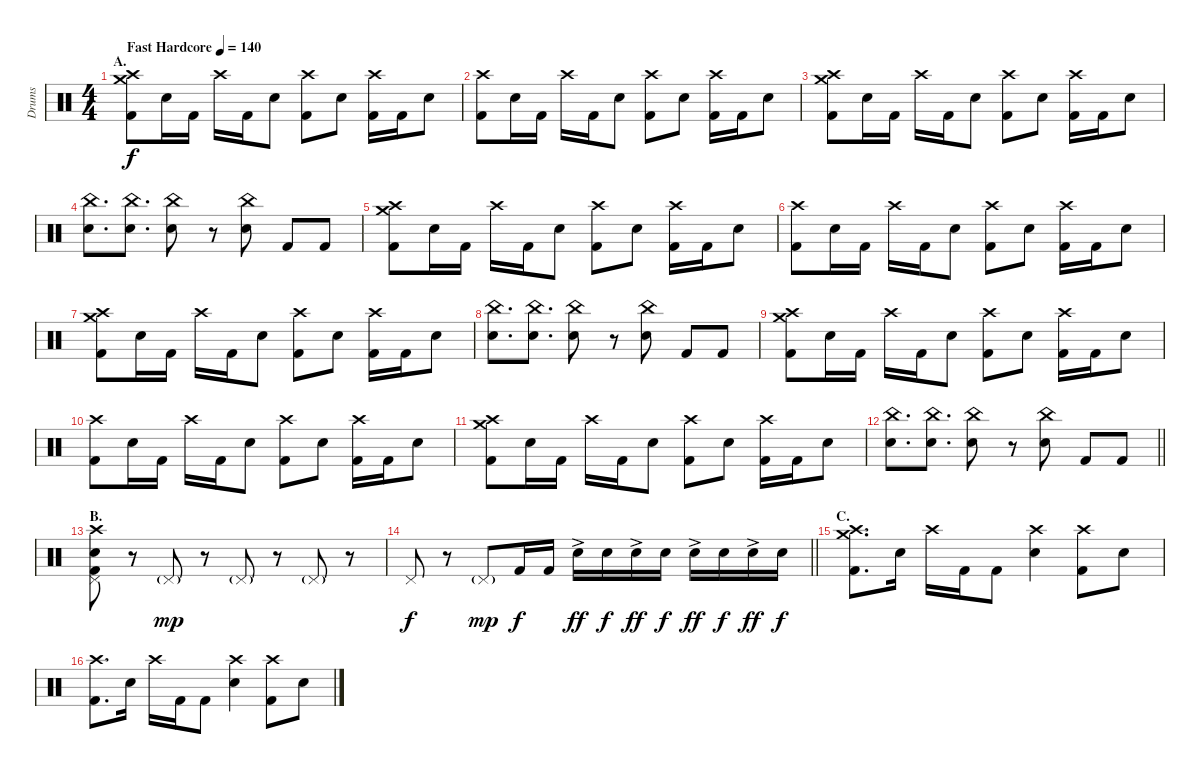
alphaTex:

\track ("Drums" "Drums") {instrument percussion}
\staff {score}
\articulation defaults
\ts (4 4)
\section ("" "A.")
\tempo (140 "Fast Hardcore")
\clef neutral
\ks c
("Crash medium (hit)" "Crash high (hit)" "Kick (hit) 2").8{dy f} "Electric Snare (hit)".16 "Kick (hit) 2".16 "Crash high (hit)".16 "Kick (hit) 2".16 "Electric Snare (hit)".8 ("Crash high (hit)" "Kick (hit) 2").8 "Electric Snare (hit)".8 ("Crash high (hit)" "Kick (hit) 2").16 "Kick (hit) 2".16 "Electric Snare (hit)".8 |
("Crash high (hit)" "Kick (hit) 2").8 "Electric Snare (hit)".16 "Kick (hit) 2".16 "Crash high (hit)".16 "Kick (hit) 2".16 "Electric Snare (hit)".8 ("Crash high (hit)" "Kick (hit) 2").8 "Electric Snare (hit)".8 ("Crash high (hit)" "Kick (hit) 2").16 "Kick (hit) 2".16 "Electric Snare (hit)".8 |
("Crash medium (hit)" "Crash high (hit)" "Kick (hit) 2").8 "Electric Snare (hit)".16 "Kick (hit) 2".16 "Crash high (hit)".16 "Kick (hit) 2".16 "Electric Snare (hit)".8 ("Crash high (hit)" "Kick (hit) 2").8 "Electric Snare (hit)".8 ("Crash high (hit)" "Kick (hit) 2").16 "Kick (hit) 2".16 "Electric Snare (hit)".8 |
("China (hit)" "Electric Snare (hit)").8{d} ("China (hit)" "Electric Snare (hit)").8{d} ("China (hit)" "Electric Snare (hit)").8 r.8 ("China (hit)" "Electric Snare (hit)").8 "Kick (hit) 2".8 "Kick (hit) 2".8 |
("Crash medium (hit)" "Crash high (hit)" "Kick (hit) 2").8 "Electric Snare (hit)".16 "Kick (hit) 2".16 "Crash high (hit)".16 "Kick (hit) 2".16 "Electric Snare (hit)".8 ("Crash high (hit)" "Kick (hit) 2").8 "Electric Snare (hit)".8 ("Crash high (hit)" "Kick (hit) 2").16 "Kick (hit) 2".16 "Electric Snare (hit)".8 |
("Crash high (hit)" "Kick (hit) 2").8 "Electric Snare (hit)".16 "Kick (hit) 2".16 "Crash high (hit)".16 "Kick (hit) 2".16 "Electric Snare (hit)".8 ("Crash high (hit)" "Kick (hit) 2").8 "Electric Snare (hit)".8 ("Crash high (hit)" "Kick (hit) 2").16 "Kick (hit) 2".16 "Electric Snare (hit)".8 |
("Crash medium (hit)" "Crash high (hit)" "Kick (hit) 2").8 "Electric Snare (hit)".16 "Kick (hit) 2".16 "Crash high (hit)".16 "Kick (hit) 2".16 "Electric Snare (hit)".8 ("Crash high (hit)" "Kick (hit) 2").8 "Electric Snare (hit)".8 ("Crash high (hit)" "Kick (hit) 2").16 "Kick (hit) 2".16 "Electric Snare (hit)".8 |
("China (hit)" "Electric Snare (hit)").8{d} ("China (hit)" "Electric Snare (hit)").8{d} ("China (hit)" "Electric Snare (hit)").8 r.8 ("China (hit)" "Electric Snare (hit)").8 "Kick (hit) 2".8 "Kick (hit) 2".8 |
("Crash medium (hit)" "Crash high (hit)" "Kick (hit) 2").8 "Electric Snare (hit)".16 "Kick (hit) 2".16 "Crash high (hit)".16 "Kick (hit) 2".16 "Electric Snare (hit)".8 ("Crash high (hit)" "Kick (hit) 2").8 "Electric Snare (hit)".8 ("Crash high (hit)" "Kick (hit) 2").16 "Kick (hit) 2".16 "Electric Snare (hit)".8 |
("Crash high (hit)" "Kick (hit) 2").8 "Electric Snare (hit)".16 "Kick (hit) 2".16 "Crash high (hit)".16 "Kick (hit) 2".16 "Electric Snare (hit)".8 ("Crash high (hit)" "Kick (hit) 2").8 "Electric Snare (hit)".8 ("Crash high (hit)" "Kick (hit) 2").16 "Kick (hit) 2".16 "Electric Snare (hit)".8 |
("Crash medium (hit)" "Crash high (hit)" "Kick (hit) 2").8 "Electric Snare (hit)".16 "Kick (hit) 2".16 "Crash high (hit)".16 "Kick (hit) 2".16 "Electric Snare (hit)".8 ("Crash high (hit)" "Kick (hit) 2").8 "Electric Snare (hit)".8 ("Crash high (hit)" "Kick (hit) 2").16 "Kick (hit) 2".16 "Electric Snare (hit)".8 |
\barLineRight lightlight
("China (hit)" "Electric Snare (hit)").8{d} ("China (hit)" "Electric Snare (hit)").8{d} ("China (hit)" "Electric Snare (hit)").8 r.8 ("China (hit)" "Electric Snare (hit)").8 "Kick (hit) 2".8 "Kick (hit) 2".8 |
\section ("" "B.")
("Crash high (hit)" "Pedal Hi-Hat (hit)" "Electric Snare (hit)" "Kick (hit) 2").8 r.8 "Pedal Hi-Hat (hit)"{g}.8{dy mp} r.8 "Pedal Hi-Hat (hit)"{g}.8 r.8 "Pedal Hi-Hat (hit)"{g}.8 r.8 |
\barLineRight lightlight "Pedal Hi-Hat (hit)".8{dy f}
r.8 "Pedal Hi-Hat (hit)"{g}.8{dy mp} "Kick (hit) 2".16{dy f} "Kick (hit) 2".16 "Electric Snare (hit)"{ac}.16{dy ff} "Electric Snare (hit)".16{dy f} "Electric Snare (hit)"{ac}.16{dy ff} "Electric Snare (hit)".16{dy f} "Electric Snare (hit)"{ac}.16{dy ff} "Electric Snare (hit)".16{dy f} "Electric Snare (hit)"{ac}.16{dy ff} "Electric Snare (hit)".16{dy f} |
\section ("" "C.")
("Crash medium (hit)" "Crash high (hit)" "Kick (hit) 2").8{d} "Electric Snare (hit)".16 "Crash high (hit)".16 "Kick (hit) 2".16 "Kick (hit) 2".8 ("Crash high (hit)" "Electric Snare (hit)").4 ("Crash high (hit)" "Kick (hit) 2").8 "Electric Snare (hit)".8 |
("Crash high (hit)" "Kick (hit) 2").8{d} "Electric Snare (hit)".16 "Crash high (hit)".16 "Kick (hit) 2".16 "Kick (hit) 2".8 ("Crash high (hit)" "Electric Snare (hit)").4 ("Crash high (hit)" "Kick (hit) 2").8 "Electric Snare (hit)".8
